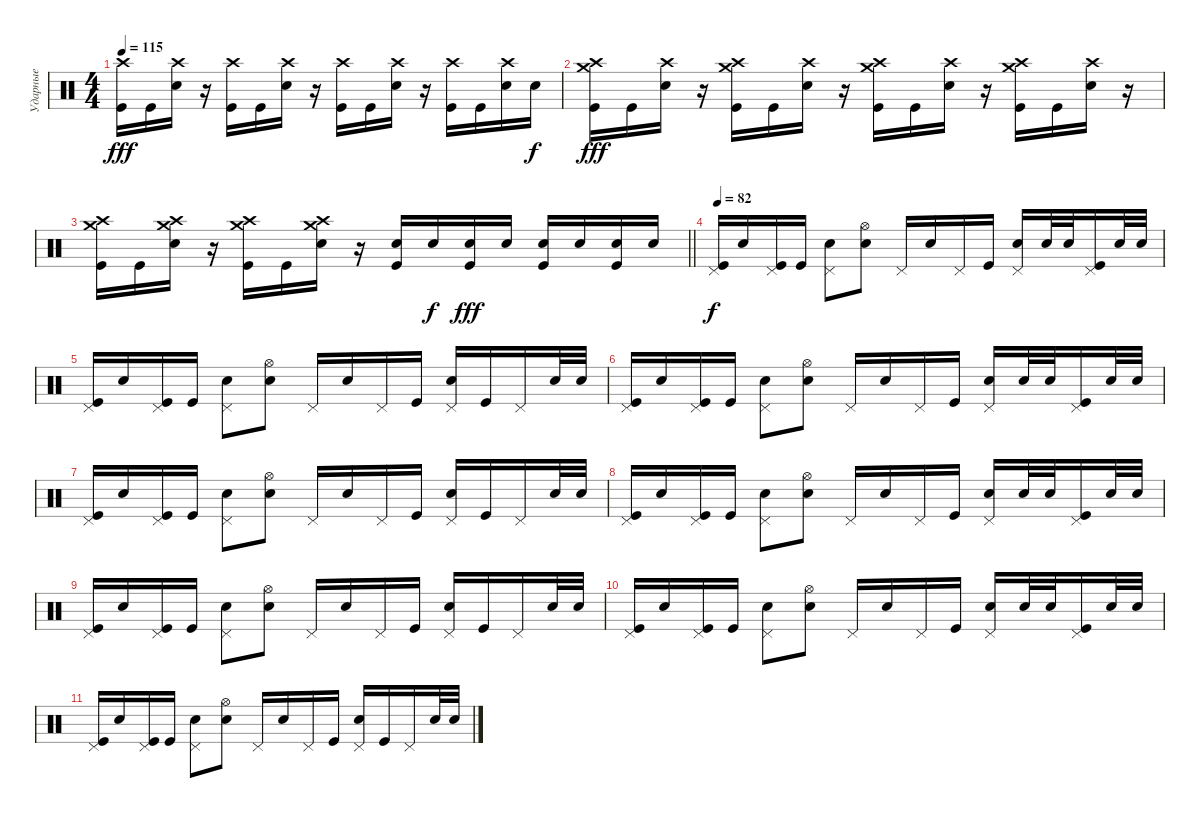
\track ("Ударные" "Ударные") {instrument percussion}
\staff {score}
\articulation defaults
\ts (4 4)
\tempo 115
\clef neutral
\ks c
("Crash high (hit)" "Kick (hit)").16{dy fff} "Kick (hit)".16 ("Crash high (hit)" "Electric Snare (hit)").16 r.16 ("Crash high (hit)" "Kick (hit)").16 "Kick (hit)".16 ("Crash high (hit)" "Electric Snare (hit)").16 r.16 ("Crash high (hit)" "Kick (hit)").16 "Kick (hit)".16 ("Crash high (hit)" "Electric Snare (hit)").16 r.16 ("Crash high (hit)" "Kick (hit)").16 "Kick (hit)".16 ("Crash high (hit)" "Electric Snare (hit)").16 "Electric Snare (hit)".16{dy f} |
("Crash medium (hit)" "Crash high (hit)" "Kick (hit)").16{dy fff} "Kick (hit)".16 ("Crash high (hit)" "Electric Snare (hit)").16 r.16 ("Crash medium (hit)" "Crash high (hit)" "Kick (hit)").16 "Kick (hit)".16 ("Crash high (hit)" "Electric Snare (hit)").16 r.16 ("Crash medium (hit)" "Crash high (hit)" "Kick (hit)").16 "Kick (hit)".16 ("Crash high (hit)" "Electric Snare (hit)").16 r.16 ("Crash medium (hit)" "Crash high (hit)" "Kick (hit)").16 "Kick (hit)".16 ("Crash high (hit)" "Electric Snare (hit)").16 r.16 |
\barLineRight lightlight
("Crash medium (hit)" "Crash high (hit)" "Kick (hit)").16 "Kick (hit)".16 ("Crash medium (hit)" "Crash high (hit)" "Electric Snare (hit)").16 r.16 ("Crash medium (hit)" "Crash high (hit)" "Kick (hit)").16 "Kick (hit)".16 ("Crash medium (hit)" "Crash high (hit)" "Electric Snare (hit)").16 r.16 ("Kick (hit)" "Electric Snare (hit)").16 "Electric Snare (hit)".16{dy f} ("Kick (hit)" "Electric Snare (hit)").16{dy fff} "Electric Snare (hit)".16 ("Kick (hit)" "Electric Snare (hit)").16 "Electric Snare (hit)".16 ("Kick (hit)" "Electric Snare (hit)").16 "Electric Snare (hit)".16 |
\tempo 82
("Pedal Hi-Hat (hit)" "Kick (hit)").16{dy f} "Electric Snare (hit)".16 ("Pedal Hi-Hat (hit)" "Kick (hit)").16 "Kick (hit)".16 ("Pedal Hi-Hat (hit)" "Electric Snare (hit)").8 ("Hi-Hat (open)" "Electric Snare (hit)").8 "Pedal Hi-Hat (hit)".16 "Electric Snare (hit)".16 "Pedal Hi-Hat (hit)".16 "Kick (hit)".16 ("Pedal Hi-Hat (hit)" "Electric Snare (hit)").16 "Electric Snare (hit)".32 "Electric Snare (hit)".32 ("Pedal Hi-Hat (hit)" "Kick (hit)").16 "Electric Snare (hit)".32 "Electric Snare (hit)".32 |
("Pedal Hi-Hat (hit)" "Kick (hit)").16 "Electric Snare (hit)".16 ("Pedal Hi-Hat (hit)" "Kick (hit)").16 "Kick (hit)".16 ("Pedal Hi-Hat (hit)" "Electric Snare (hit)").8 ("Hi-Hat (open)" "Electric Snare (hit)").8 "Pedal Hi-Hat (hit)".16 "Electric Snare (hit)".16 "Pedal Hi-Hat (hit)".16 "Kick (hit)".16 ("Pedal Hi-Hat (hit)" "Electric Snare (hit)").16 "Kick (hit)".16 "Pedal Hi-Hat (hit)".16 "Electric Snare (hit)".32 "Electric Snare (hit)".32 |
("Pedal Hi-Hat (hit)" "Kick (hit)").16 "Electric Snare (hit)".16 ("Pedal Hi-Hat (hit)" "Kick (hit)").16 "Kick (hit)".16 ("Pedal Hi-Hat (hit)" "Electric Snare (hit)").8 ("Hi-Hat (open)" "Electric Snare (hit)").8 "Pedal Hi-Hat (hit)".16 "Electric Snare (hit)".16 "Pedal Hi-Hat (hit)".16 "Kick (hit)".16 ("Pedal Hi-Hat (hit)" "Electric Snare (hit)").16 "Electric Snare (hit)".32 "Electric Snare (hit)".32 ("Pedal Hi-Hat (hit)" "Kick (hit)").16 "Electric Snare (hit)".32 "Electric Snare (hit)".32 |
("Pedal Hi-Hat (hit)" "Kick (hit)").16 "Electric Snare (hit)".16 ("Pedal Hi-Hat (hit)" "Kick (hit)").16 "Kick (hit)".16 ("Pedal Hi-Hat (hit)" "Electric Snare (hit)").8 ("Hi-Hat (open)" "Electric Snare (hit)").8 "Pedal Hi-Hat (hit)".16 "Electric Snare (hit)".16 "Pedal Hi-Hat (hit)".16 "Kick (hit)".16 ("Pedal Hi-Hat (hit)" "Electric Snare (hit)").16 "Kick (hit)".16 "Pedal Hi-Hat (hit)".16 "Electric Snare (hit)".32 "Electric Snare (hit)".32 |
("Pedal Hi-Hat (hit)" "Kick (hit)").16 "Electric Snare (hit)".16 ("Pedal Hi-Hat (hit)" "Kick (hit)").16 "Kick (hit)".16 ("Pedal Hi-Hat (hit)" "Electric Snare (hit)").8 ("Hi-Hat (open)" "Electric Snare (hit)").8 "Pedal Hi-Hat (hit)".16 "Electric Snare (hit)".16 "Pedal Hi-Hat (hit)".16 "Kick (hit)".16 ("Pedal Hi-Hat (hit)" "Electric Snare (hit)").16 "Electric Snare (hit)".32 "Electric Snare (hit)".32 ("Pedal Hi-Hat (hit)" "Kick (hit)").16 "Electric Snare (hit)".32 "Electric Snare (hit)".32 |
("Pedal Hi-Hat (hit)" "Kick (hit)").16 "Electric Snare (hit)".16 ("Pedal Hi-Hat (hit)" "Kick (hit)").16 "Kick (hit)".16 ("Pedal Hi-Hat (hit)" "Electric Snare (hit)").8 ("Hi-Hat (open)" "Electric Snare (hit)").8 "Pedal Hi-Hat (hit)".16 "Electric Snare (hit)".16 "Pedal Hi-Hat (hit)".16 "Kick (hit)".16 ("Pedal Hi-Hat (hit)" "Electric Snare (hit)").16 "Kick (hit)".16 "Pedal Hi-Hat (hit)".16 "Electric Snare (hit)".32 "Electric Snare (hit)".32 |
("Pedal Hi-Hat (hit)" "Kick (hit)").16 "Electric Snare (hit)".16 ("Pedal Hi-Hat (hit)" "Kick (hit)").16 "Kick (hit)".16 ("Pedal Hi-Hat (hit)" "Electric Snare (hit)").8 ("Hi-Hat (open)" "Electric Snare (hit)").8 "Pedal Hi-Hat (hit)".16 "Electric Snare (hit)".16 "Pedal Hi-Hat (hit)".16 "Kick (hit)".16 ("Pedal Hi-Hat (hit)" "Electric Snare (hit)").16 "Electric Snare (hit)".32 "Electric Snare (hit)".32 ("Pedal Hi-Hat (hit)" "Kick (hit)").16 "Electric Snare (hit)".32 "Electric Snare (hit)".32 |
("Pedal Hi-Hat (hit)" "Kick (hit)").16 "Electric Snare (hit)".16 ("Pedal Hi-Hat (hit)" "Kick (hit)").16 "Kick (hit)".16 ("Pedal Hi-Hat (hit)" "Electric Snare (hit)").8 ("Hi-Hat (open)" "Electric Snare (hit)").8 "Pedal Hi-Hat (hit)".16 "Electric Snare (hit)".16 "Pedal Hi-Hat (hit)".16 "Kick (hit)".16 ("Pedal Hi-Hat (hit)" "Electric Snare (hit)").16 "Kick (hit)".16 "Pedal Hi-Hat (hit)".16 "Electric Snare (hit)".32 "Electric Snare (hit)".32
